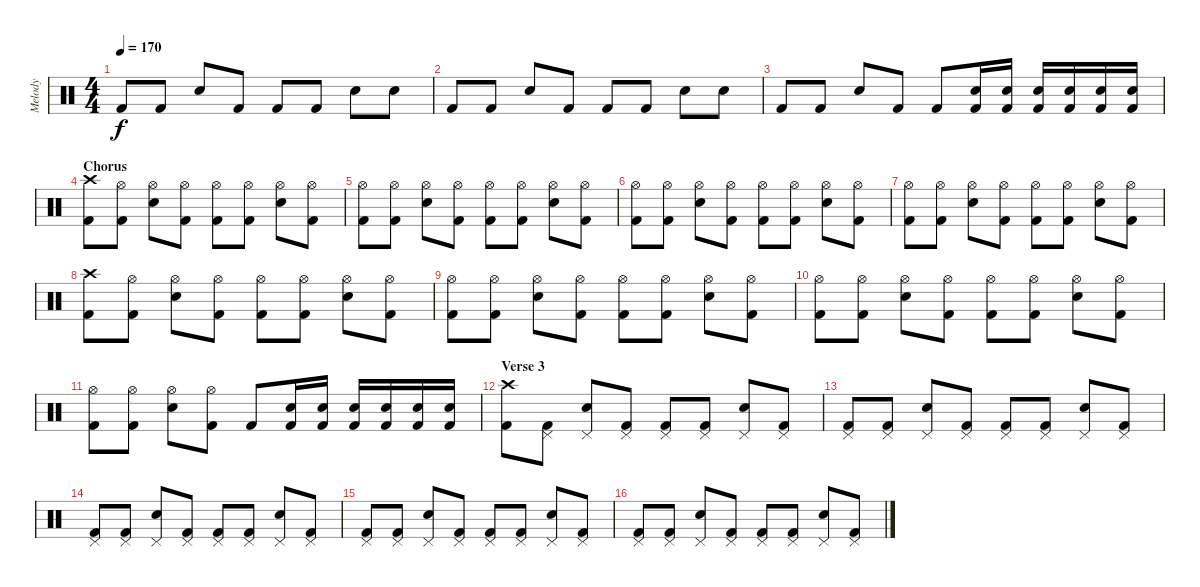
\track ("Melody" "Melody") {instrument percussion}
\staff {score}
\articulation defaults
\ts (4 4)
\tempo 170
\clef neutral
\ks c "Kick (hit) 2".8{dy f} "Kick (hit) 2".8 "Snare (hit) 2".8 "Kick (hit) 2".8 "Kick (hit) 2".8 "Kick (hit) 2".8 "Snare (hit) 2".8 "Snare (hit) 2".8
|
"Kick (hit) 2".8 "Kick (hit) 2".8 "Snare (hit) 2".8 "Kick (hit) 2".8 "Kick (hit) 2".8 "Kick (hit) 2".8 "Snare (hit) 2".8 "Snare (hit) 2".8 |
"Kick (hit) 2".8 "Kick (hit) 2".8 "Snare (hit) 2".8 "Kick (hit) 2".8 "Kick (hit) 2".8 ("Snare (hit) 2" "Kick (hit) 2").16 ("Snare (hit) 2" "Kick (hit) 2").16 ("Snare (hit) 2" "Kick (hit) 2").16 ("Snare (hit) 2" "Kick (hit) 2").16 ("Snare (hit) 2" "Kick (hit) 2").16 ("Snare (hit) 2" "Kick (hit) 2").16 |
\section ("" "Chorus")
("Crash high (hit)" "Kick (hit) 2").8 ("Hi-Hat (open)" "Kick (hit) 2").8 ("Hi-Hat (open)" "Snare (hit) 2").8 ("Hi-Hat (open)" "Kick (hit) 2").8 ("Hi-Hat (open)" "Kick (hit) 2").8 ("Hi-Hat (open)" "Kick (hit) 2").8 ("Hi-Hat (open)" "Snare (hit) 2").8 ("Hi-Hat (open)" "Kick (hit) 2").8 |
("Hi-Hat (open)" "Kick (hit) 2").8 ("Hi-Hat (open)" "Kick (hit) 2").8 ("Hi-Hat (open)" "Snare (hit) 2").8 ("Hi-Hat (open)" "Kick (hit) 2").8 ("Hi-Hat (open)" "Kick (hit) 2").8 ("Hi-Hat (open)" "Kick (hit) 2").8 ("Hi-Hat (open)" "Snare (hit) 2").8 ("Hi-Hat (open)" "Kick (hit) 2").8 |
("Hi-Hat (open)" "Kick (hit) 2").8 ("Hi-Hat (open)" "Kick (hit) 2").8 ("Hi-Hat (open)" "Snare (hit) 2").8 ("Hi-Hat (open)" "Kick (hit) 2").8 ("Hi-Hat (open)" "Kick (hit) 2").8 ("Hi-Hat (open)" "Kick (hit) 2").8 ("Hi-Hat (open)" "Snare (hit) 2").8 ("Hi-Hat (open)" "Kick (hit) 2").8 |
("Hi-Hat (open)" "Kick (hit) 2").8 ("Hi-Hat (open)" "Kick (hit) 2").8 ("Hi-Hat (open)" "Snare (hit) 2").8 ("Hi-Hat (open)" "Kick (hit) 2").8 ("Hi-Hat (open)" "Kick (hit) 2").8 ("Hi-Hat (open)" "Kick (hit) 2").8 ("Hi-Hat (open)" "Snare (hit) 2").8 ("Hi-Hat (open)" "Kick (hit) 2").8 |
("Crash high (hit)" "Kick (hit) 2").8 ("Hi-Hat (open)" "Kick (hit) 2").8 ("Hi-Hat (open)" "Snare (hit) 2").8 ("Hi-Hat (open)" "Kick (hit) 2").8 ("Hi-Hat (open)" "Kick (hit) 2").8 ("Hi-Hat (open)" "Kick (hit) 2").8 ("Hi-Hat (open)" "Snare (hit) 2").8 ("Hi-Hat (open)" "Kick (hit) 2").8 |
("Hi-Hat (open)" "Kick (hit) 2").8 ("Hi-Hat (open)" "Kick (hit) 2").8 ("Hi-Hat (open)" "Snare (hit) 2").8 ("Hi-Hat (open)" "Kick (hit) 2").8 ("Hi-Hat (open)" "Kick (hit) 2").8 ("Hi-Hat (open)" "Kick (hit) 2").8 ("Hi-Hat (open)" "Snare (hit) 2").8 ("Hi-Hat (open)" "Kick (hit) 2").8 |
("Hi-Hat (open)" "Kick (hit) 2").8 ("Hi-Hat (open)" "Kick (hit) 2").8 ("Hi-Hat (open)" "Snare (hit) 2").8 ("Hi-Hat (open)" "Kick (hit) 2").8 ("Hi-Hat (open)" "Kick (hit) 2").8 ("Hi-Hat (open)" "Kick (hit) 2").8 ("Hi-Hat (open)" "Snare (hit) 2").8 ("Hi-Hat (open)" "Kick (hit) 2").8 |
("Hi-Hat (open)" "Kick (hit) 2").8 ("Hi-Hat (open)" "Kick (hit) 2").8 ("Hi-Hat (open)" "Snare (hit) 2").8 ("Hi-Hat (open)" "Kick (hit) 2").8 "Kick (hit) 2".8 ("Snare (hit) 2" "Kick (hit) 2").16 ("Snare (hit) 2" "Kick (hit) 2").16 ("Snare (hit) 2" "Kick (hit) 2").16 ("Snare (hit) 2" "Kick (hit) 2").16 ("Snare (hit) 2" "Kick (hit) 2").16 ("Snare (hit) 2" "Kick (hit) 2").16 |
\section ("" "Verse 3")
("Crash high (hit)" "Kick (hit) 2").8 ("Pedal Hi-Hat (hit)" "Kick (hit) 2").8 ("Pedal Hi-Hat (hit)" "Snare (hit) 2").8 ("Pedal Hi-Hat (hit)" "Kick (hit) 2").8 ("Pedal Hi-Hat (hit)" "Kick (hit) 2").8 ("Pedal Hi-Hat (hit)" "Kick (hit) 2").8 ("Pedal Hi-Hat (hit)" "Snare (hit) 2").8 ("Pedal Hi-Hat (hit)" "Kick (hit) 2").8 |
("Pedal Hi-Hat (hit)" "Kick (hit) 2").8 ("Pedal Hi-Hat (hit)" "Kick (hit) 2").8 ("Pedal Hi-Hat (hit)" "Snare (hit) 2").8 ("Pedal Hi-Hat (hit)" "Kick (hit) 2").8 ("Pedal Hi-Hat (hit)" "Kick (hit) 2").8 ("Pedal Hi-Hat (hit)" "Kick (hit) 2").8 ("Pedal Hi-Hat (hit)" "Snare (hit) 2").8 ("Pedal Hi-Hat (hit)" "Kick (hit) 2").8 |
("Pedal Hi-Hat (hit)" "Kick (hit) 2").8 ("Pedal Hi-Hat (hit)" "Kick (hit) 2").8 ("Pedal Hi-Hat (hit)" "Snare (hit) 2").8 ("Pedal Hi-Hat (hit)" "Kick (hit) 2").8 ("Pedal Hi-Hat (hit)" "Kick (hit) 2").8 ("Pedal Hi-Hat (hit)" "Kick (hit) 2").8 ("Pedal Hi-Hat (hit)" "Snare (hit) 2").8 ("Pedal Hi-Hat (hit)" "Kick (hit) 2").8 |
("Pedal Hi-Hat (hit)" "Kick (hit) 2").8 ("Pedal Hi-Hat (hit)" "Kick (hit) 2").8 ("Pedal Hi-Hat (hit)" "Snare (hit) 2").8 ("Pedal Hi-Hat (hit)" "Kick (hit) 2").8 ("Pedal Hi-Hat (hit)" "Kick (hit) 2").8 ("Pedal Hi-Hat (hit)" "Kick (hit) 2").8 ("Pedal Hi-Hat (hit)" "Snare (hit) 2").8 ("Pedal Hi-Hat (hit)" "Kick (hit) 2").8 |
("Pedal Hi-Hat (hit)" "Kick (hit) 2").8 ("Pedal Hi-Hat (hit)" "Kick (hit) 2").8 ("Pedal Hi-Hat (hit)" "Snare (hit) 2").8 ("Pedal Hi-Hat (hit)" "Kick (hit) 2").8 ("Pedal Hi-Hat (hit)" "Kick (hit) 2").8 ("Pedal Hi-Hat (hit)" "Kick (hit) 2").8 ("Pedal Hi-Hat (hit)" "Snare (hit) 2").8 ("Pedal Hi-Hat (hit)" "Kick (hit) 2").8
